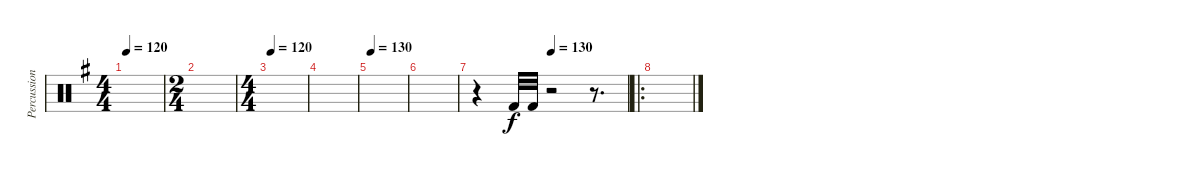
\track ("Percussion" "Percussion") {instrument percussion}
\staff {score}
\articulation defaults
\ts (4 4)
\tempo 120
\clef neutral
\ks g
|
\ts (2 4)
|
\ts (4 4)
\tempo 120
|
|
\tempo 130
|
|
\tempo (130 0.5)
r.4 "Kick (hit) 2".32 "Kick (hit) 2".32 r.2 r.8{d} |
\ro
